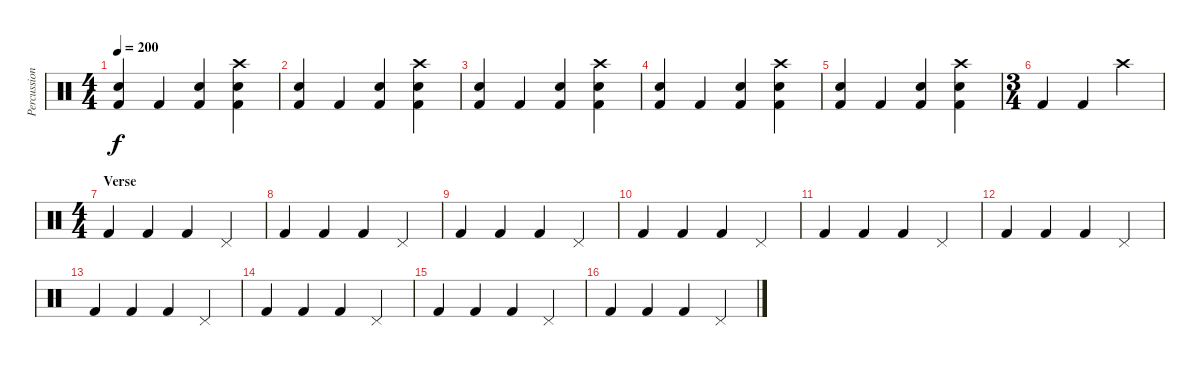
\track ("Percussion" "Percussion") {instrument percussion}
\staff {score}
\articulation defaults
\ts (4 4)
\tempo 200
\clef neutral
\ks c
("Snare (hit) 2" "Kick (hit) 2").4{dy f} "Kick (hit) 2".4 ("Snare (hit) 2" "Kick (hit) 2").4 ("Crash high (hit)" "Snare (hit) 2" "Kick (hit) 2").4 |
("Snare (hit) 2" "Kick (hit) 2").4 "Kick (hit) 2".4 ("Snare (hit) 2" "Kick (hit) 2").4 ("Crash high (hit)" "Snare (hit) 2" "Kick (hit) 2").4 |
("Snare (hit) 2" "Kick (hit) 2").4 "Kick (hit) 2".4 ("Snare (hit) 2" "Kick (hit) 2").4 ("Crash high (hit)" "Snare (hit) 2" "Kick (hit) 2").4 |
("Snare (hit) 2" "Kick (hit) 2").4 "Kick (hit) 2".4 ("Snare (hit) 2" "Kick (hit) 2").4 ("Crash high (hit)" "Snare (hit) 2" "Kick (hit) 2").4 |
("Snare (hit) 2" "Kick (hit) 2").4 "Kick (hit) 2".4 ("Snare (hit) 2" "Kick (hit) 2").4 ("Crash high (hit)" "Snare (hit) 2" "Kick (hit) 2").4 |
\ts (3 4)
"Kick (hit) 2".4 "Kick (hit) 2".4 "Crash high (hit)".4 |
\ts (4 4)
\section ("" "Verse")
"Kick (hit) 2".4 "Kick (hit) 2".4 "Kick (hit) 2".4 "Pedal Hi-Hat (hit)".4 |
"Kick (hit) 2".4 "Kick (hit) 2".4 "Kick (hit) 2".4 "Pedal Hi-Hat (hit)".4 |
"Kick (hit) 2".4 "Kick (hit) 2".4 "Kick (hit) 2".4 "Pedal Hi-Hat (hit)".4 |
"Kick (hit) 2".4 "Kick (hit) 2".4 "Kick (hit) 2".4 "Pedal Hi-Hat (hit)".4 |
"Kick (hit) 2".4 "Kick (hit) 2".4 "Kick (hit) 2".4 "Pedal Hi-Hat (hit)".4 |
"Kick (hit) 2".4 "Kick (hit) 2".4 "Kick (hit) 2".4 "Pedal Hi-Hat (hit)".4 |
"Kick (hit) 2".4 "Kick (hit) 2".4 "Kick (hit) 2".4 "Pedal Hi-Hat (hit)".4 |
"Kick (hit) 2".4 "Kick (hit) 2".4 "Kick (hit) 2".4 "Pedal Hi-Hat (hit)".4 |
"Kick (hit) 2".4 "Kick (hit) 2".4 "Kick (hit) 2".4 "Pedal Hi-Hat (hit)".4 |
"Kick (hit) 2".4 "Kick (hit) 2".4 "Kick (hit) 2".4 "Pedal Hi-Hat (hit)".4
